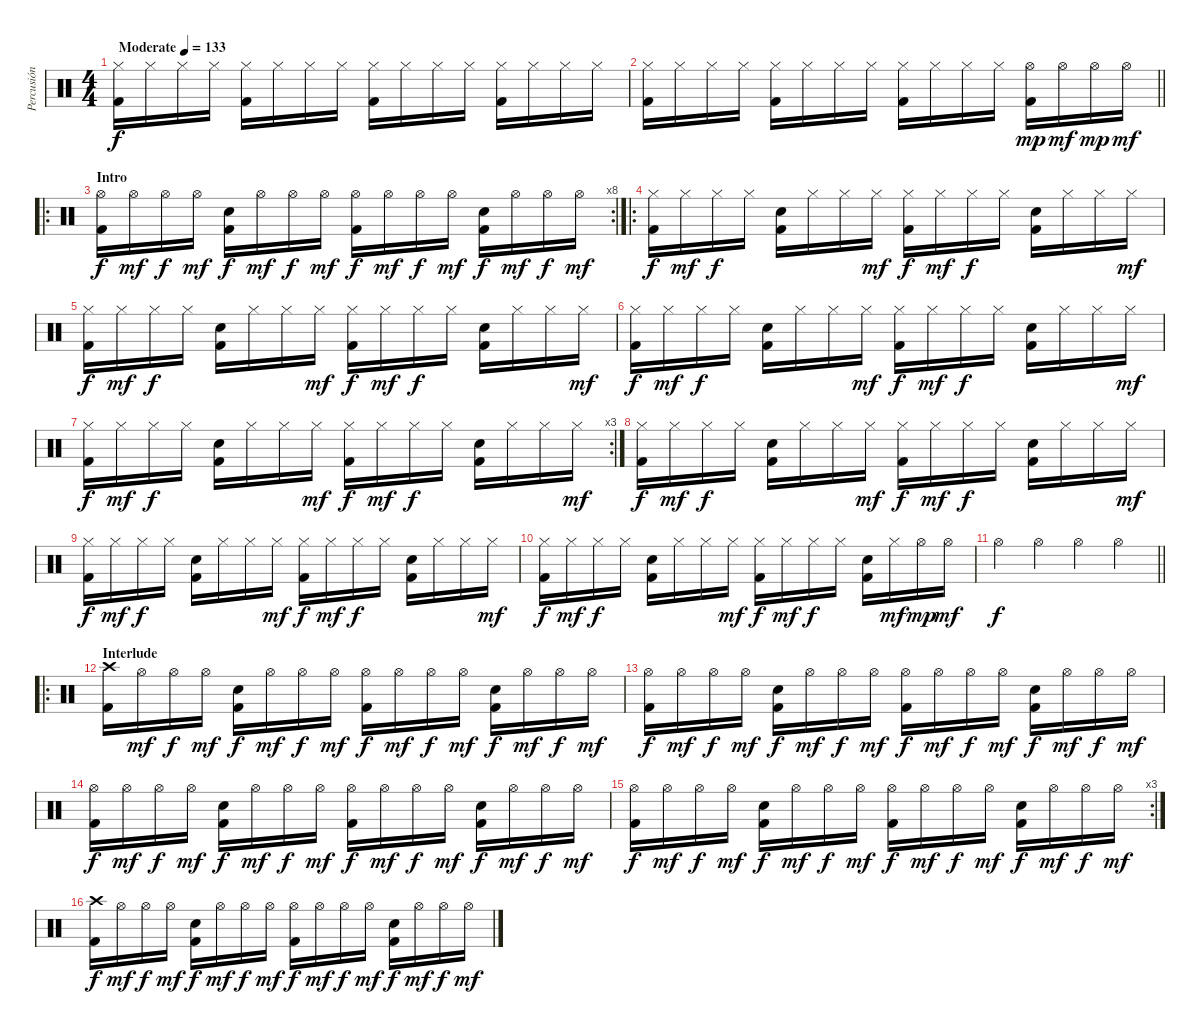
\track ("Percusión" "Percusión") {instrument percussion}
\staff {score}
\articulation defaults
\ts (4 4)
\tempo (133 "Moderate")
\clef neutral
\ks c
("Hi-Hat (closed)" "Kick (hit) 2").16{dy f} "Hi-Hat (closed)".16 "Hi-Hat (closed)".16 "Hi-Hat (closed)".16 ("Hi-Hat (closed)" "Kick (hit) 2").16 "Hi-Hat (closed)".16 "Hi-Hat (closed)".16 "Hi-Hat (closed)".16 ("Hi-Hat (closed)" "Kick (hit) 2").16 "Hi-Hat (closed)".16 "Hi-Hat (closed)".16 "Hi-Hat (closed)".16 ("Hi-Hat (closed)" "Kick (hit) 2").16 "Hi-Hat (closed)".16 "Hi-Hat (closed)".16 "Hi-Hat (closed)".16 |
\barLineRight lightlight
("Hi-Hat (closed)" "Kick (hit) 2").16 "Hi-Hat (closed)".16 "Hi-Hat (closed)".16 "Hi-Hat (closed)".16 ("Hi-Hat (closed)" "Kick (hit) 2").16 "Hi-Hat (closed)".16 "Hi-Hat (closed)".16 "Hi-Hat (closed)".16 ("Hi-Hat (closed)" "Kick (hit) 2").16 "Hi-Hat (closed)".16 "Hi-Hat (closed)".16 "Hi-Hat (closed)".16 ("Hi-Hat (open)" "Kick (hit) 2").16{dy mp} "Hi-Hat (open)".16{dy mf} "Hi-Hat (open)".16{dy mp} "Hi-Hat (open)".16{dy mf} |
\ro
\rc 8
\section ("" "Intro")
("Hi-Hat (open)" "Kick (hit) 2").16{dy f} "Hi-Hat (open)".16{dy mf} "Hi-Hat (open)".16{dy f} "Hi-Hat (open)".16{dy mf} ("Snare (hit) 2" "Kick (hit) 2").16{dy f} "Hi-Hat (open)".16{dy mf} "Hi-Hat (open)".16{dy f} "Hi-Hat (open)".16{dy mf} ("Hi-Hat (open)" "Kick (hit) 2").16{dy f} "Hi-Hat (open)".16{dy mf} "Hi-Hat (open)".16{dy f} "Hi-Hat (open)".16{dy mf} ("Snare (hit) 2" "Kick (hit) 2").16{dy f} "Hi-Hat (open)".16{dy mf} "Hi-Hat (open)".16{dy f} "Hi-Hat (open)".16{dy mf} |
\ro
("Hi-Hat (closed)" "Kick (hit) 2").16{dy f} "Hi-Hat (closed)".16{dy mf} "Hi-Hat (closed)".16{dy f} "Hi-Hat (closed)".16 ("Snare (hit) 2" "Kick (hit) 2").16 "Hi-Hat (closed)".16 "Hi-Hat (closed)".16 "Hi-Hat (closed)".16{dy mf} ("Hi-Hat (closed)" "Kick (hit) 2").16{dy f} "Hi-Hat (closed)".16{dy mf} "Hi-Hat (closed)".16{dy f} "Hi-Hat (closed)".16 ("Snare (hit) 2" "Kick (hit) 2").16 "Hi-Hat (closed)".16 "Hi-Hat (closed)".16 "Hi-Hat (closed)".16{dy mf} |
("Hi-Hat (closed)" "Kick (hit) 2").16{dy f} "Hi-Hat (closed)".16{dy mf} "Hi-Hat (closed)".16{dy f} "Hi-Hat (closed)".16 ("Snare (hit) 2" "Kick (hit) 2").16 "Hi-Hat (closed)".16 "Hi-Hat (closed)".16 "Hi-Hat (closed)".16{dy mf} ("Hi-Hat (closed)" "Kick (hit) 2").16{dy f} "Hi-Hat (closed)".16{dy mf} "Hi-Hat (closed)".16{dy f} "Hi-Hat (closed)".16 ("Snare (hit) 2" "Kick (hit) 2").16 "Hi-Hat (closed)".16 "Hi-Hat (closed)".16 "Hi-Hat (closed)".16{dy mf} |
("Hi-Hat (closed)" "Kick (hit) 2").16{dy f} "Hi-Hat (closed)".16{dy mf} "Hi-Hat (closed)".16{dy f} "Hi-Hat (closed)".16 ("Snare (hit) 2" "Kick (hit) 2").16 "Hi-Hat (closed)".16 "Hi-Hat (closed)".16 "Hi-Hat (closed)".16{dy mf} ("Hi-Hat (closed)" "Kick (hit) 2").16{dy f} "Hi-Hat (closed)".16{dy mf} "Hi-Hat (closed)".16{dy f} "Hi-Hat (closed)".16 ("Snare (hit) 2" "Kick (hit) 2").16 "Hi-Hat (closed)".16 "Hi-Hat (closed)".16 "Hi-Hat (closed)".16{dy mf} |
\rc 3
("Hi-Hat (closed)" "Kick (hit) 2").16{dy f} "Hi-Hat (closed)".16{dy mf} "Hi-Hat (closed)".16{dy f} "Hi-Hat (closed)".16 ("Snare (hit) 2" "Kick (hit) 2").16 "Hi-Hat (closed)".16 "Hi-Hat (closed)".16 "Hi-Hat (closed)".16{dy mf} ("Hi-Hat (closed)" "Kick (hit) 2").16{dy f} "Hi-Hat (closed)".16{dy mf} "Hi-Hat (closed)".16{dy f} "Hi-Hat (closed)".16 ("Snare (hit) 2" "Kick (hit) 2").16 "Hi-Hat (closed)".16 "Hi-Hat (closed)".16 "Hi-Hat (closed)".16{dy mf} |
("Hi-Hat (closed)" "Kick (hit) 2").16{dy f} "Hi-Hat (closed)".16{dy mf} "Hi-Hat (closed)".16{dy f} "Hi-Hat (closed)".16 ("Snare (hit) 2" "Kick (hit) 2").16 "Hi-Hat (closed)".16 "Hi-Hat (closed)".16 "Hi-Hat (closed)".16{dy mf} ("Hi-Hat (closed)" "Kick (hit) 2").16{dy f} "Hi-Hat (closed)".16{dy mf} "Hi-Hat (closed)".16{dy f} "Hi-Hat (closed)".16 ("Snare (hit) 2" "Kick (hit) 2").16 "Hi-Hat (closed)".16 "Hi-Hat (closed)".16 "Hi-Hat (closed)".16{dy mf} |
("Hi-Hat (closed)" "Kick (hit) 2").16{dy f} "Hi-Hat (closed)".16{dy mf} "Hi-Hat (closed)".16{dy f} "Hi-Hat (closed)".16 ("Snare (hit) 2" "Kick (hit) 2").16 "Hi-Hat (closed)".16 "Hi-Hat (closed)".16 "Hi-Hat (closed)".16{dy mf} ("Hi-Hat (closed)" "Kick (hit) 2").16{dy f} "Hi-Hat (closed)".16{dy mf} "Hi-Hat (closed)".16{dy f} "Hi-Hat (closed)".16 ("Snare (hit) 2" "Kick (hit) 2").16 "Hi-Hat (closed)".16 "Hi-Hat (closed)".16 "Hi-Hat (closed)".16{dy mf} |
("Hi-Hat (closed)" "Kick (hit) 2").16{dy f} "Hi-Hat (closed)".16{dy mf} "Hi-Hat (closed)".16{dy f} "Hi-Hat (closed)".16 ("Snare (hit) 2" "Kick (hit) 2").16 "Hi-Hat (closed)".16 "Hi-Hat (closed)".16 "Hi-Hat (closed)".16{dy mf} ("Hi-Hat (closed)" "Kick (hit) 2").16{dy f} "Hi-Hat (closed)".16{dy mf} "Hi-Hat (closed)".16{dy f} "Hi-Hat (closed)".16 ("Snare (hit) 2" "Kick (hit) 2").16 "Hi-Hat (closed)".16{dy mf} "Hi-Hat (open)".16{dy mp} "Hi-Hat (open)".16{dy mf} |
\barLineRight lightlight "Hi-Hat (open)".4{dy f} "Hi-Hat (open)".4 "Hi-Hat (open)".4 "Hi-Hat (open)".4
|
\ro
\section ("" "Interlude")
("Crash high (hit)" "Kick (hit) 2").16 "Hi-Hat (open)".16{dy mf} "Hi-Hat (open)".16{dy f} "Hi-Hat (open)".16{dy mf} ("Snare (hit) 2" "Kick (hit) 2").16{dy f} "Hi-Hat (open)".16{dy mf} "Hi-Hat (open)".16{dy f} "Hi-Hat (open)".16{dy mf} ("Hi-Hat (open)" "Kick (hit) 2").16{dy f} "Hi-Hat (open)".16{dy mf} "Hi-Hat (open)".16{dy f} "Hi-Hat (open)".16{dy mf} ("Snare (hit) 2" "Kick (hit) 2").16{dy f} "Hi-Hat (open)".16{dy mf} "Hi-Hat (open)".16{dy f} "Hi-Hat (open)".16{dy mf} |
("Hi-Hat (open)" "Kick (hit) 2").16{dy f} "Hi-Hat (open)".16{dy mf} "Hi-Hat (open)".16{dy f} "Hi-Hat (open)".16{dy mf} ("Snare (hit) 2" "Kick (hit) 2").16{dy f} "Hi-Hat (open)".16{dy mf} "Hi-Hat (open)".16{dy f} "Hi-Hat (open)".16{dy mf} ("Hi-Hat (open)" "Kick (hit) 2").16{dy f} "Hi-Hat (open)".16{dy mf} "Hi-Hat (open)".16{dy f} "Hi-Hat (open)".16{dy mf} ("Snare (hit) 2" "Kick (hit) 2").16{dy f} "Hi-Hat (open)".16{dy mf} "Hi-Hat (open)".16{dy f} "Hi-Hat (open)".16{dy mf} |
("Hi-Hat (open)" "Kick (hit) 2").16{dy f} "Hi-Hat (open)".16{dy mf} "Hi-Hat (open)".16{dy f} "Hi-Hat (open)".16{dy mf} ("Snare (hit) 2" "Kick (hit) 2").16{dy f} "Hi-Hat (open)".16{dy mf} "Hi-Hat (open)".16{dy f} "Hi-Hat (open)".16{dy mf} ("Hi-Hat (open)" "Kick (hit) 2").16{dy f} "Hi-Hat (open)".16{dy mf} "Hi-Hat (open)".16{dy f} "Hi-Hat (open)".16{dy mf} ("Snare (hit) 2" "Kick (hit) 2").16{dy f} "Hi-Hat (open)".16{dy mf} "Hi-Hat (open)".16{dy f} "Hi-Hat (open)".16{dy mf} |
\rc 3
("Hi-Hat (open)" "Kick (hit) 2").16{dy f} "Hi-Hat (open)".16{dy mf} "Hi-Hat (open)".16{dy f} "Hi-Hat (open)".16{dy mf} ("Snare (hit) 2" "Kick (hit) 2").16{dy f} "Hi-Hat (open)".16{dy mf} "Hi-Hat (open)".16{dy f} "Hi-Hat (open)".16{dy mf} ("Hi-Hat (open)" "Kick (hit) 2").16{dy f} "Hi-Hat (open)".16{dy mf} "Hi-Hat (open)".16{dy f} "Hi-Hat (open)".16{dy mf} ("Snare (hit) 2" "Kick (hit) 2").16{dy f} "Hi-Hat (open)".16{dy mf} "Hi-Hat (open)".16{dy f} "Hi-Hat (open)".16{dy mf} |
("Crash high (hit)" "Kick (hit) 2").16{dy f} "Hi-Hat (open)".16{dy mf} "Hi-Hat (open)".16{dy f} "Hi-Hat (open)".16{dy mf} ("Snare (hit) 2" "Kick (hit) 2").16{dy f} "Hi-Hat (open)".16{dy mf} "Hi-Hat (open)".16{dy f} "Hi-Hat (open)".16{dy mf} ("Hi-Hat (open)" "Kick (hit) 2").16{dy f} "Hi-Hat (open)".16{dy mf} "Hi-Hat (open)".16{dy f} "Hi-Hat (open)".16{dy mf} ("Snare (hit) 2" "Kick (hit) 2").16{dy f} "Hi-Hat (open)".16{dy mf} "Hi-Hat (open)".16{dy f} "Hi-Hat (open)".16{dy mf}
